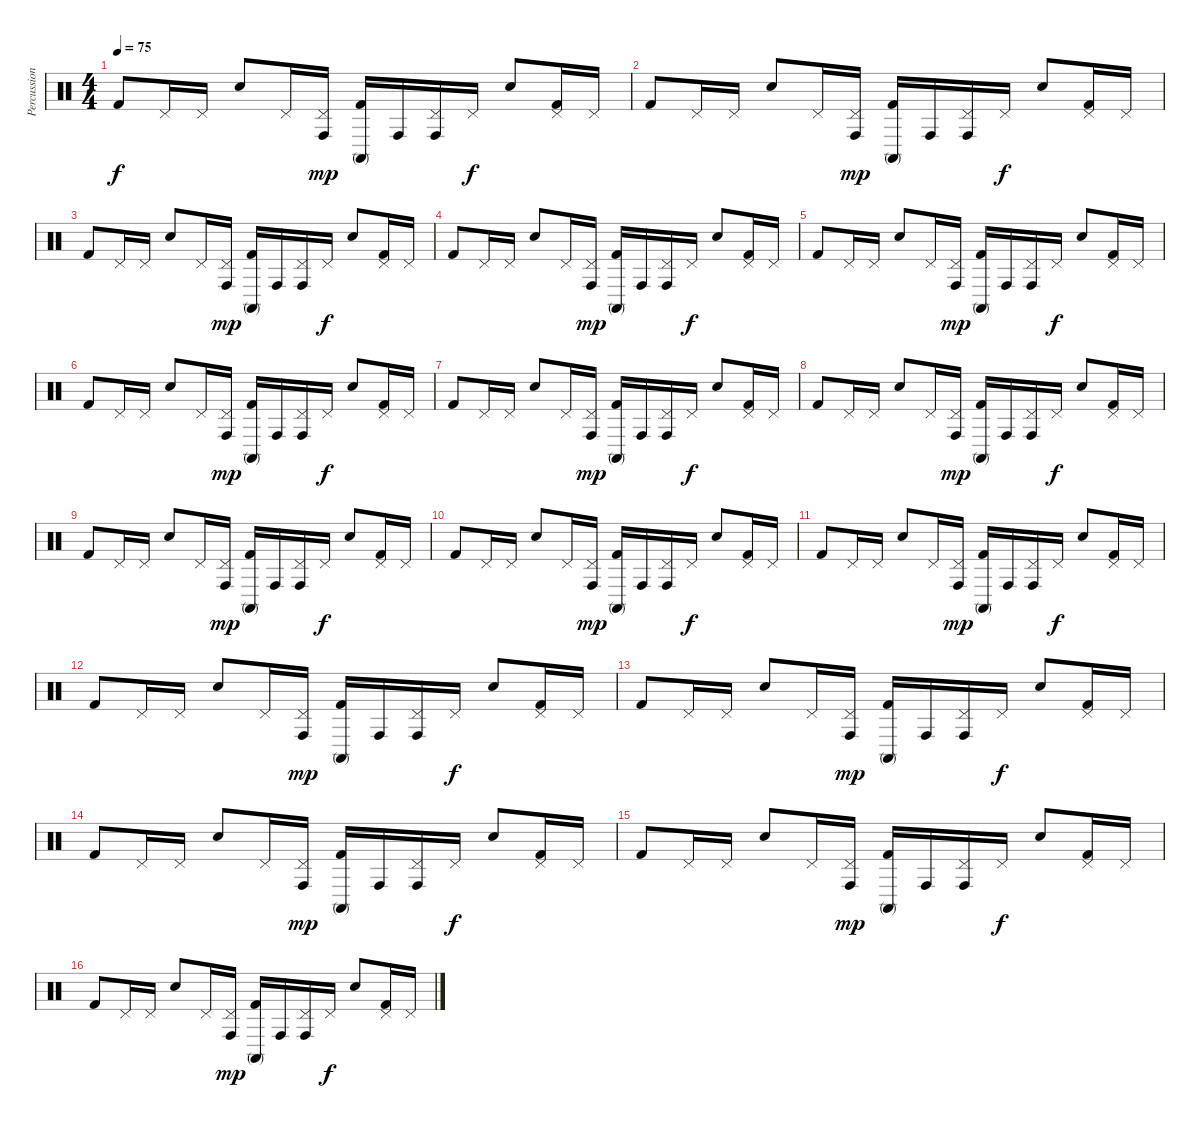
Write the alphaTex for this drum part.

\track ("Percussion" "Percussion") {instrument percussion}
\staff {score}
\articulation defaults
\ts (4 4)
\tempo 75
\clef neutral
\ks c "Kick (hit) 2".8{dy f} "Pedal Hi-Hat (hit)".16 "Pedal Hi-Hat (hit)".16 "Snare (hit) 2".8 "Pedal Hi-Hat (hit)".16
("Pedal Hi-Hat (hit)" "Conga high (hit)").16{dy mp} ("Conga high (mute)" "Kick (hit) 2").16 "Conga high (hit)".16 ("Pedal Hi-Hat (hit)" "Conga high (hit)").16 "Pedal Hi-Hat (hit)".16{dy f} "Snare (hit) 2".8 ("Pedal Hi-Hat (hit)" "Kick (hit) 2").16 "Pedal Hi-Hat (hit)".16 |
"Kick (hit) 2".8 "Pedal Hi-Hat (hit)".16 "Pedal Hi-Hat (hit)".16 "Snare (hit) 2".8 "Pedal Hi-Hat (hit)".16 ("Pedal Hi-Hat (hit)" "Conga high (hit)").16{dy mp} ("Conga high (mute)" "Kick (hit) 2").16 "Conga high (hit)".16 ("Pedal Hi-Hat (hit)" "Conga high (hit)").16 "Pedal Hi-Hat (hit)".16{dy f} "Snare (hit) 2".8 ("Pedal Hi-Hat (hit)" "Kick (hit) 2").16 "Pedal Hi-Hat (hit)".16 |
"Kick (hit) 2".8 "Pedal Hi-Hat (hit)".16 "Pedal Hi-Hat (hit)".16 "Snare (hit) 2".8 "Pedal Hi-Hat (hit)".16 ("Pedal Hi-Hat (hit)" "Conga high (hit)").16{dy mp} ("Conga high (mute)" "Kick (hit) 2").16 "Conga high (hit)".16 ("Pedal Hi-Hat (hit)" "Conga high (hit)").16 "Pedal Hi-Hat (hit)".16{dy f} "Snare (hit) 2".8 ("Pedal Hi-Hat (hit)" "Kick (hit) 2").16 "Pedal Hi-Hat (hit)".16 |
"Kick (hit) 2".8 "Pedal Hi-Hat (hit)".16 "Pedal Hi-Hat (hit)".16 "Snare (hit) 2".8 "Pedal Hi-Hat (hit)".16 ("Pedal Hi-Hat (hit)" "Conga high (hit)").16{dy mp} ("Conga high (mute)" "Kick (hit) 2").16 "Conga high (hit)".16 ("Pedal Hi-Hat (hit)" "Conga high (hit)").16 "Pedal Hi-Hat (hit)".16{dy f} "Snare (hit) 2".8 ("Pedal Hi-Hat (hit)" "Kick (hit) 2").16 "Pedal Hi-Hat (hit)".16 |
"Kick (hit) 2".8 "Pedal Hi-Hat (hit)".16 "Pedal Hi-Hat (hit)".16 "Snare (hit) 2".8 "Pedal Hi-Hat (hit)".16 ("Pedal Hi-Hat (hit)" "Conga high (hit)").16{dy mp} ("Conga high (mute)" "Kick (hit) 2").16 "Conga high (hit)".16 ("Pedal Hi-Hat (hit)" "Conga high (hit)").16 "Pedal Hi-Hat (hit)".16{dy f} "Snare (hit) 2".8 ("Pedal Hi-Hat (hit)" "Kick (hit) 2").16 "Pedal Hi-Hat (hit)".16 |
"Kick (hit) 2".8 "Pedal Hi-Hat (hit)".16 "Pedal Hi-Hat (hit)".16 "Snare (hit) 2".8 "Pedal Hi-Hat (hit)".16 ("Pedal Hi-Hat (hit)" "Conga high (hit)").16{dy mp} ("Conga high (mute)" "Kick (hit) 2").16 "Conga high (hit)".16 ("Pedal Hi-Hat (hit)" "Conga high (hit)").16 "Pedal Hi-Hat (hit)".16{dy f} "Snare (hit) 2".8 ("Pedal Hi-Hat (hit)" "Kick (hit) 2").16 "Pedal Hi-Hat (hit)".16 |
"Kick (hit) 2".8 "Pedal Hi-Hat (hit)".16 "Pedal Hi-Hat (hit)".16 "Snare (hit) 2".8 "Pedal Hi-Hat (hit)".16 ("Pedal Hi-Hat (hit)" "Conga high (hit)").16{dy mp} ("Conga high (mute)" "Kick (hit) 2").16 "Conga high (hit)".16 ("Pedal Hi-Hat (hit)" "Conga high (hit)").16 "Pedal Hi-Hat (hit)".16{dy f} "Snare (hit) 2".8 ("Pedal Hi-Hat (hit)" "Kick (hit) 2").16 "Pedal Hi-Hat (hit)".16 |
"Kick (hit) 2".8 "Pedal Hi-Hat (hit)".16 "Pedal Hi-Hat (hit)".16 "Snare (hit) 2".8 "Pedal Hi-Hat (hit)".16 ("Pedal Hi-Hat (hit)" "Conga high (hit)").16{dy mp} ("Conga high (mute)" "Kick (hit) 2").16 "Conga high (hit)".16 ("Pedal Hi-Hat (hit)" "Conga high (hit)").16 "Pedal Hi-Hat (hit)".16{dy f} "Snare (hit) 2".8 ("Pedal Hi-Hat (hit)" "Kick (hit) 2").16 "Pedal Hi-Hat (hit)".16 |
"Kick (hit) 2".8 "Pedal Hi-Hat (hit)".16 "Pedal Hi-Hat (hit)".16 "Snare (hit) 2".8 "Pedal Hi-Hat (hit)".16 ("Pedal Hi-Hat (hit)" "Conga high (hit)").16{dy mp} ("Conga high (mute)" "Kick (hit) 2").16 "Conga high (hit)".16 ("Pedal Hi-Hat (hit)" "Conga high (hit)").16 "Pedal Hi-Hat (hit)".16{dy f} "Snare (hit) 2".8 ("Pedal Hi-Hat (hit)" "Kick (hit) 2").16 "Pedal Hi-Hat (hit)".16 |
"Kick (hit) 2".8 "Pedal Hi-Hat (hit)".16 "Pedal Hi-Hat (hit)".16 "Snare (hit) 2".8 "Pedal Hi-Hat (hit)".16 ("Pedal Hi-Hat (hit)" "Conga high (hit)").16{dy mp} ("Conga high (mute)" "Kick (hit) 2").16 "Conga high (hit)".16 ("Pedal Hi-Hat (hit)" "Conga high (hit)").16 "Pedal Hi-Hat (hit)".16{dy f} "Snare (hit) 2".8 ("Pedal Hi-Hat (hit)" "Kick (hit) 2").16 "Pedal Hi-Hat (hit)".16 |
"Kick (hit) 2".8 "Pedal Hi-Hat (hit)".16 "Pedal Hi-Hat (hit)".16 "Snare (hit) 2".8 "Pedal Hi-Hat (hit)".16 ("Pedal Hi-Hat (hit)" "Conga high (hit)").16{dy mp} ("Conga high (mute)" "Kick (hit) 2").16 "Conga high (hit)".16 ("Pedal Hi-Hat (hit)" "Conga high (hit)").16 "Pedal Hi-Hat (hit)".16{dy f} "Snare (hit) 2".8 ("Pedal Hi-Hat (hit)" "Kick (hit) 2").16 "Pedal Hi-Hat (hit)".16 |
"Kick (hit) 2".8 "Pedal Hi-Hat (hit)".16 "Pedal Hi-Hat (hit)".16 "Snare (hit) 2".8 "Pedal Hi-Hat (hit)".16 ("Pedal Hi-Hat (hit)" "Conga high (hit)").16{dy mp} ("Conga high (mute)" "Kick (hit) 2").16 "Conga high (hit)".16 ("Pedal Hi-Hat (hit)" "Conga high (hit)").16 "Pedal Hi-Hat (hit)".16{dy f} "Snare (hit) 2".8 ("Pedal Hi-Hat (hit)" "Kick (hit) 2").16 "Pedal Hi-Hat (hit)".16 |
"Kick (hit) 2".8 "Pedal Hi-Hat (hit)".16 "Pedal Hi-Hat (hit)".16 "Snare (hit) 2".8 "Pedal Hi-Hat (hit)".16 ("Pedal Hi-Hat (hit)" "Conga high (hit)").16{dy mp} ("Conga high (mute)" "Kick (hit) 2").16 "Conga high (hit)".16 ("Pedal Hi-Hat (hit)" "Conga high (hit)").16 "Pedal Hi-Hat (hit)".16{dy f} "Snare (hit) 2".8 ("Pedal Hi-Hat (hit)" "Kick (hit) 2").16 "Pedal Hi-Hat (hit)".16 |
"Kick (hit) 2".8 "Pedal Hi-Hat (hit)".16 "Pedal Hi-Hat (hit)".16 "Snare (hit) 2".8 "Pedal Hi-Hat (hit)".16 ("Pedal Hi-Hat (hit)" "Conga high (hit)").16{dy mp} ("Conga high (mute)" "Kick (hit) 2").16 "Conga high (hit)".16 ("Pedal Hi-Hat (hit)" "Conga high (hit)").16 "Pedal Hi-Hat (hit)".16{dy f} "Snare (hit) 2".8 ("Pedal Hi-Hat (hit)" "Kick (hit) 2").16 "Pedal Hi-Hat (hit)".16 |
"Kick (hit) 2".8 "Pedal Hi-Hat (hit)".16 "Pedal Hi-Hat (hit)".16 "Snare (hit) 2".8 "Pedal Hi-Hat (hit)".16 ("Pedal Hi-Hat (hit)" "Conga high (hit)").16{dy mp} ("Conga high (mute)" "Kick (hit) 2").16 "Conga high (hit)".16 ("Pedal Hi-Hat (hit)" "Conga high (hit)").16 "Pedal Hi-Hat (hit)".16{dy f} "Snare (hit) 2".8 ("Pedal Hi-Hat (hit)" "Kick (hit) 2").16 "Pedal Hi-Hat (hit)".16 |
"Kick (hit) 2".8 "Pedal Hi-Hat (hit)".16 "Pedal Hi-Hat (hit)".16 "Snare (hit) 2".8 "Pedal Hi-Hat (hit)".16 ("Pedal Hi-Hat (hit)" "Conga high (hit)").16{dy mp} ("Conga high (mute)" "Kick (hit) 2").16 "Conga high (hit)".16 ("Pedal Hi-Hat (hit)" "Conga high (hit)").16 "Pedal Hi-Hat (hit)".16{dy f} "Snare (hit) 2".8 ("Pedal Hi-Hat (hit)" "Kick (hit) 2").16 "Pedal Hi-Hat (hit)".16
